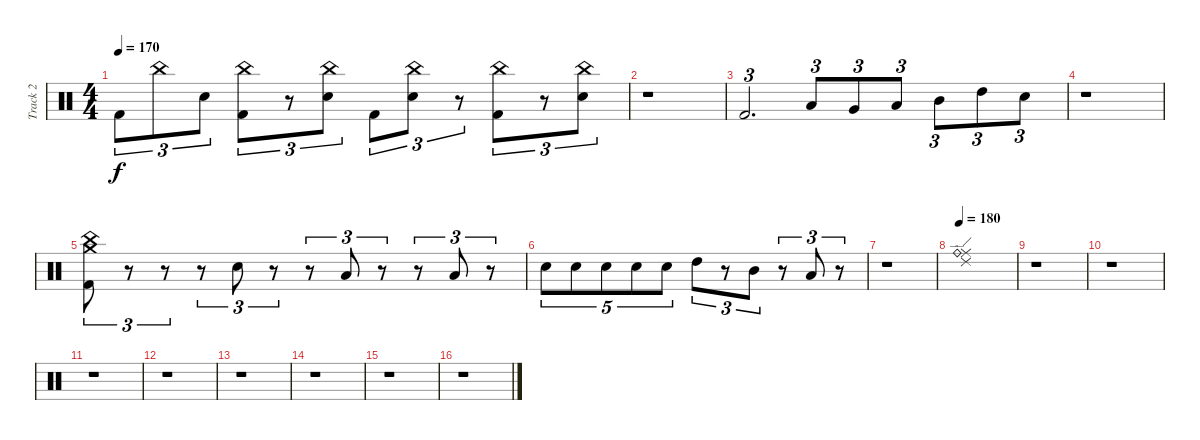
\track ("Track 2" "Track 2") {instrument percussion}
\staff {score}
\articulation defaults
\ts (4 4)
\tempo 170
\clef neutral
\ks c "Kick (hit) 2".8{tu (3 2) dy f} "China (hit)".8{tu (3 2)} "Electric Snare (hit)".8{tu (3 2)}
("China (hit)" "Kick (hit) 2").8{tu (3 2)} r.8{tu (3 2)} ("China (hit)" "Electric Snare (hit)").8{tu (3 2)} "Kick (hit) 2".8{tu (3 2)} ("China (hit)" "Electric Snare (hit)").8{tu (3 2)} r.8{tu (3 2)} ("China (hit)" "Kick (hit) 2").8{tu (3 2)} r.8{tu (3 2)} ("China (hit)" "Electric Snare (hit)").8{tu (3 2)} |
r.1 |
"Kick (hit) 2".2{d tu (3 2)} "Low Floor Tom (hit)".8{tu (3 2)} "Very Low Tom (hit)".8{tu (3 2)} "Low Tom (hit)".8{tu (3 2)} "Mid Tom (hit)".8{tu (3 2)} "High Tom (hit)".8{tu (3 2)} "Electric Snare (hit)".8{tu (3 2)} |
r.1 |
("Crash medium (hit)" "China (hit)" "Kick (hit) 2").8{tu (3 2)} r.8{tu (3 2)} r.8{tu (3 2)} r.8{tu (3 2)} "Electric Snare (hit)".8{tu (3 2)} r.8{tu (3 2)} r.8{tu (3 2)} "Low Tom (hit)".8{tu (3 2)} r.8{tu (3 2)} r.8{tu (3 2)} "Low Floor Tom (hit)".8{tu (3 2)} r.8{tu (3 2)} |
"Electric Snare (hit)".8{tu (5 4)} "Electric Snare (hit)".8{tu (5 4)} "Electric Snare (hit)".8{tu (5 4)} "Electric Snare (hit)".8{tu (5 4)} "Electric Snare (hit)".8{tu (5 4)} "High Tom (hit)".8{tu (3 2)} r.8{tu (3 2)} "Mid Tom (hit)".8{tu (3 2)} r.8{tu (3 2)} "Low Tom (hit)".8{tu (3 2)} r.8{tu (3 2)} |
r.1 |
\tempo 180
("Ride (middle)" "Ride (edge) 2" "Ride (bell)").1 |
r.1 |
r.1 |
r.1 |
r.1 |
r.1 |
r.1 |
r.1 |
r.1
